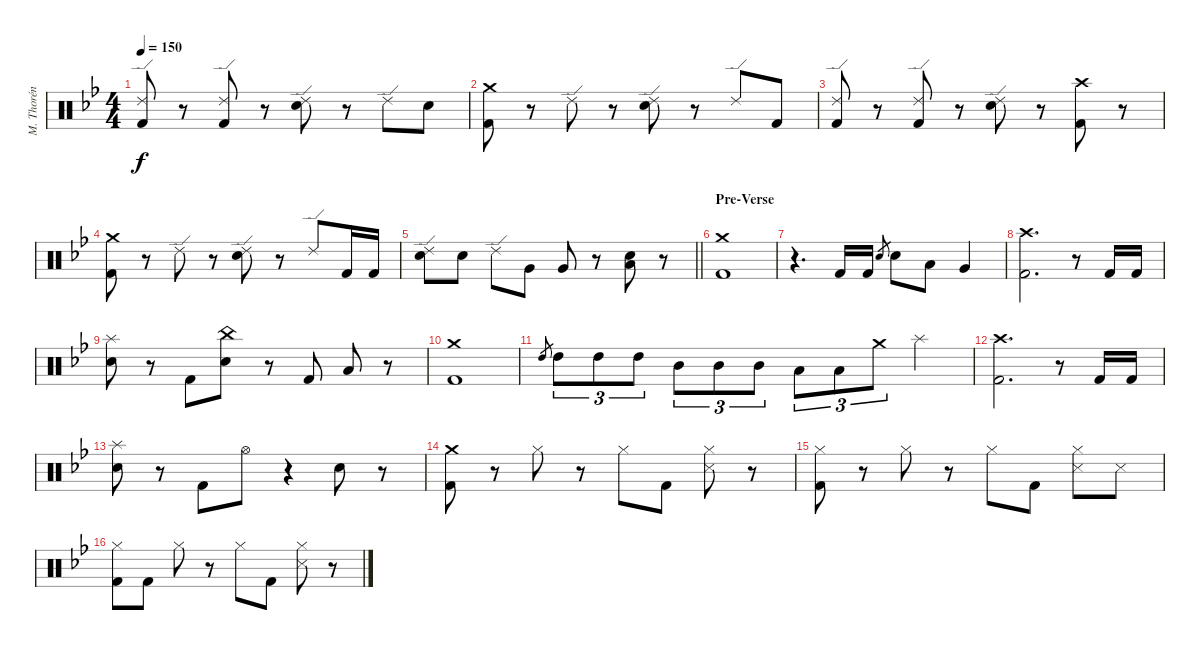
\track ("M. Thorén (Drums)" "M. Thorén ") {instrument percussion}
\staff {score}
\articulation defaults
\ts (4 4)
\tempo 150
\clef neutral
\ks gminor
("Ride (edge) 2" "Kick (hit) 2").8{dy f} r.8 ("Ride (edge) 2" "Kick (hit) 2").8 r.8 ("Ride (edge) 2" "Electric Snare (hit)").8 r.8 "Ride (edge) 2".8 "Electric Snare (hit)".8 |
("Crash medium (hit)" "Kick (hit) 2").8 r.8 "Ride (edge) 2".8 r.8 ("Ride (edge) 2" "Electric Snare (hit)").8 r.8 "Ride (edge) 2".8 "Kick (hit) 2".8 |
("Ride (edge) 2" "Kick (hit) 2").8 r.8 ("Ride (edge) 2" "Kick (hit) 2").8 r.8 ("Ride (edge) 2" "Electric Snare (hit)").8 r.8 ("Crash high (hit)" "Kick (hit) 2").8 r.8 |
("Crash medium (hit)" "Kick (hit) 2").8 r.8 "Ride (edge) 2".8 r.8 ("Ride (edge) 2" "Electric Snare (hit)").8 r.8 "Ride (edge) 2".8 "Kick (hit) 2".16 "Kick (hit) 2".16 |
\barLineRight lightlight
("Ride (edge) 2" "Electric Snare (hit)").8 "Electric Snare (hit)".8 "Ride (edge) 2".8 "Very Low Tom (hit)".8 "Very Low Tom (hit)".8 r.8 ("Electric Snare (hit)" "Low Floor Tom (hit)").8 r.8 |
\section ("" "Pre-Verse")
("Crash medium (hit)" "Kick (hit) 2").1 |
r.4{d} "Kick (hit) 2".16 "Kick (hit) 2".16 "Electric Snare (hit)".8{gr} "Electric Snare (hit)".8 "Low Tom (hit)".8 "Very Low Tom (hit)".4 |
("Crash high (hit)" "Kick (hit) 2").2{d} r.8 "Kick (hit) 2".16 "Kick (hit) 2".16 |
("Splash (hit)" "Electric Snare (hit)").8 r.8 "Kick (hit) 2".8 ("China (hit)" "Electric Snare (hit)").8 r.8 "Kick (hit) 2".8 "Low Floor Tom (hit)".8 r.8 |
("Crash medium (hit)" "Kick (hit) 2").1 |
"High Tom (hit)".8{gr} "High Tom (hit)".8{tu (3 2)} "High Tom (hit)".8{tu (3 2)} "High Tom (hit)".8{tu (3 2)} "Mid Tom (hit)".8{tu (3 2)} "Mid Tom (hit)".8{tu (3 2)} "Mid Tom (hit)".8{tu (3 2)} "Low Tom (hit)".8{tu (3 2)} "Low Tom (hit)".8{tu (3 2)} "Crash medium (hit)".8{tu (3 2)} "Splash (hit)".4 |
("Crash high (hit)" "Kick (hit) 2").2{d} r.8 "Kick (hit) 2".16 "Kick (hit) 2".16 |
("Splash (hit)" "Electric Snare (hit)").8 r.8 "Kick (hit) 2".8 "Hi-Hat (open)".8 r.4 "Electric Snare (hit)".8 r.8 |
("Crash medium (hit)" "Kick (hit) 2").8 r.8 "Hi-Hat (closed)".8 r.8 "Hi-Hat (closed)".8 "Kick (hit) 2".8 ("Hi-Hat (closed)" "Snare (side stick) 3").8 r.8 |
("Hi-Hat (closed)" "Kick (hit) 2").8 r.8 "Hi-Hat (closed)".8 r.8 "Hi-Hat (closed)".8 "Kick (hit) 2".8 ("Hi-Hat (closed)" "Snare (side stick) 3").8 "Snare (side stick) 3".8 |
("Hi-Hat (closed)" "Kick (hit) 2").8 "Kick (hit) 2".8 "Hi-Hat (closed)".8 r.8 "Hi-Hat (closed)".8 "Kick (hit) 2".8 ("Hi-Hat (closed)" "Snare (side stick) 3").8 r.8
